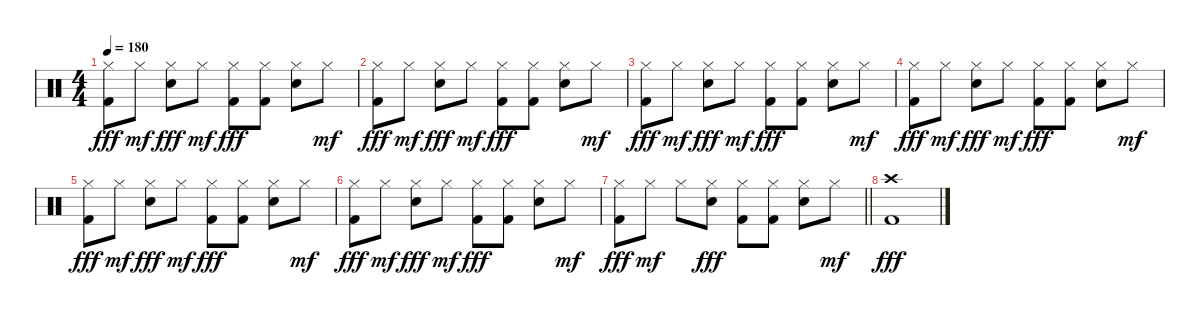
\track "" {instrument percussion}
\staff {score}
\articulation defaults
\ts (4 4)
\tempo 180
\clef neutral
\ks c
("Hi-Hat (closed)" "Kick (hit) 2").8{dy fff} "Hi-Hat (closed)".8{dy mf} ("Hi-Hat (closed)" "Snare (hit) 2").8{dy fff} "Hi-Hat (closed)".8{dy mf} ("Hi-Hat (closed)" "Kick (hit) 2").8{dy fff} ("Hi-Hat (closed)" "Kick (hit) 2").8 ("Hi-Hat (closed)" "Snare (hit) 2").8 "Hi-Hat (closed)".8{dy mf} |
("Hi-Hat (closed)" "Kick (hit) 2").8{dy fff} "Hi-Hat (closed)".8{dy mf} ("Hi-Hat (closed)" "Snare (hit) 2").8{dy fff} "Hi-Hat (closed)".8{dy mf} ("Hi-Hat (closed)" "Kick (hit) 2").8{dy fff} ("Hi-Hat (closed)" "Kick (hit) 2").8 ("Hi-Hat (closed)" "Snare (hit) 2").8 "Hi-Hat (closed)".8{dy mf} |
("Hi-Hat (closed)" "Kick (hit) 2").8{dy fff} "Hi-Hat (closed)".8{dy mf} ("Hi-Hat (closed)" "Snare (hit) 2").8{dy fff} "Hi-Hat (closed)".8{dy mf} ("Hi-Hat (closed)" "Kick (hit) 2").8{dy fff} ("Hi-Hat (closed)" "Kick (hit) 2").8 ("Hi-Hat (closed)" "Snare (hit) 2").8 "Hi-Hat (closed)".8{txt "" dy mf} |
("Hi-Hat (closed)" "Kick (hit) 2").8{dy fff} "Hi-Hat (closed)".8{dy mf} ("Hi-Hat (closed)" "Snare (hit) 2").8{dy fff} "Hi-Hat (closed)".8{dy mf} ("Hi-Hat (closed)" "Kick (hit) 2").8{dy fff} ("Hi-Hat (closed)" "Kick (hit) 2").8 ("Hi-Hat (closed)" "Snare (hit) 2").8 "Hi-Hat (closed)".8{dy mf} |
("Hi-Hat (closed)" "Kick (hit) 2").8{dy fff} "Hi-Hat (closed)".8{dy mf} ("Hi-Hat (closed)" "Snare (hit) 2").8{dy fff} "Hi-Hat (closed)".8{dy mf} ("Hi-Hat (closed)" "Kick (hit) 2").8{dy fff} ("Hi-Hat (closed)" "Kick (hit) 2").8 ("Hi-Hat (closed)" "Snare (hit) 2").8 "Hi-Hat (closed)".8{dy mf} |
("Hi-Hat (closed)" "Kick (hit) 2").8{dy fff} "Hi-Hat (closed)".8{dy mf} ("Hi-Hat (closed)" "Snare (hit) 2").8{dy fff} "Hi-Hat (closed)".8{dy mf} ("Hi-Hat (closed)" "Kick (hit) 2").8{dy fff} ("Hi-Hat (closed)" "Kick (hit) 2").8 ("Hi-Hat (closed)" "Snare (hit) 2").8 "Hi-Hat (closed)".8{dy mf} |
\barLineRight lightlight
("Hi-Hat (closed)" "Kick (hit) 2").8{dy fff} "Hi-Hat (closed)".8{dy mf} "Hi-Hat (closed)".8 ("Hi-Hat (closed)" "Snare (hit) 2").8{dy fff} ("Hi-Hat (closed)" "Kick (hit) 2").8 ("Hi-Hat (closed)" "Kick (hit) 2").8 ("Hi-Hat (closed)" "Snare (hit) 2").8 "Hi-Hat (closed)".8{dy mf} |
("Crash high (hit)" "Kick (hit) 2").1{dy fff}
